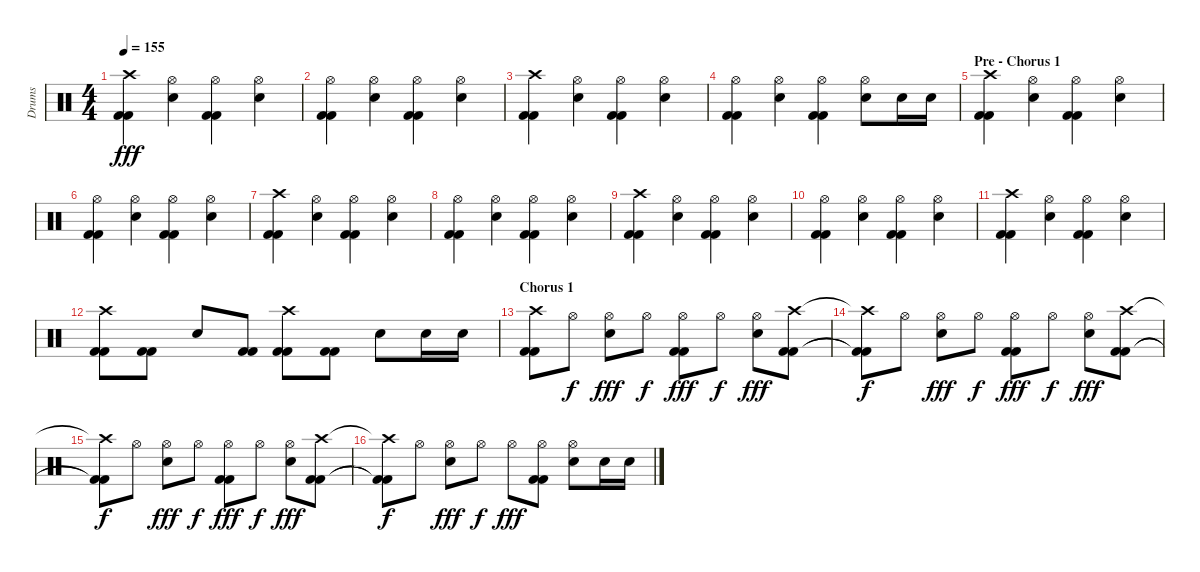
\track ("Drums" "Drums") {instrument percussion}
\staff {score}
\articulation defaults
\ts (4 4)
\tempo 155
\clef neutral
\ks c
("Crash high (hit)" "Kick (hit) 2" "Kick (hit) 2").4{dy fff} ("Hi-Hat (open)" "Snare (hit) 2").4 ("Hi-Hat (open)" "Kick (hit) 2" "Kick (hit) 2").4 ("Hi-Hat (open)" "Snare (hit) 2").4 |
("Hi-Hat (open)" "Kick (hit) 2" "Kick (hit) 2").4 ("Hi-Hat (open)" "Snare (hit) 2").4 ("Hi-Hat (open)" "Kick (hit) 2" "Kick (hit) 2").4 ("Hi-Hat (open)" "Snare (hit) 2").4 |
("Crash high (hit)" "Kick (hit) 2" "Kick (hit) 2").4 ("Hi-Hat (open)" "Snare (hit) 2").4 ("Hi-Hat (open)" "Kick (hit) 2" "Kick (hit) 2").4 ("Hi-Hat (open)" "Snare (hit) 2").4 |
("Hi-Hat (open)" "Kick (hit) 2" "Kick (hit) 2").4 ("Hi-Hat (open)" "Snare (hit) 2").4 ("Hi-Hat (open)" "Kick (hit) 2" "Kick (hit) 2").4 ("Hi-Hat (open)" "Snare (hit) 2").8 "Snare (hit) 2".16 "Snare (hit) 2".16 |
\section ("" "Pre - Chorus 1")
("Crash high (hit)" "Kick (hit) 2" "Kick (hit) 2").4 ("Hi-Hat (open)" "Snare (hit) 2").4 ("Hi-Hat (open)" "Kick (hit) 2" "Kick (hit) 2").4 ("Hi-Hat (open)" "Snare (hit) 2").4 |
("Hi-Hat (open)" "Kick (hit) 2" "Kick (hit) 2").4 ("Hi-Hat (open)" "Snare (hit) 2").4 ("Hi-Hat (open)" "Kick (hit) 2" "Kick (hit) 2").4 ("Hi-Hat (open)" "Snare (hit) 2").4 |
("Crash high (hit)" "Kick (hit) 2" "Kick (hit) 2").4 ("Hi-Hat (open)" "Snare (hit) 2").4 ("Hi-Hat (open)" "Kick (hit) 2" "Kick (hit) 2").4 ("Hi-Hat (open)" "Snare (hit) 2").4 |
("Hi-Hat (open)" "Kick (hit) 2" "Kick (hit) 2").4 ("Hi-Hat (open)" "Snare (hit) 2").4 ("Hi-Hat (open)" "Kick (hit) 2" "Kick (hit) 2").4 ("Hi-Hat (open)" "Snare (hit) 2").4 |
("Crash high (hit)" "Kick (hit) 2" "Kick (hit) 2").4 ("Hi-Hat (open)" "Snare (hit) 2").4 ("Hi-Hat (open)" "Kick (hit) 2" "Kick (hit) 2").4 ("Hi-Hat (open)" "Snare (hit) 2").4 |
("Hi-Hat (open)" "Kick (hit) 2" "Kick (hit) 2").4 ("Hi-Hat (open)" "Snare (hit) 2").4 ("Hi-Hat (open)" "Kick (hit) 2" "Kick (hit) 2").4 ("Hi-Hat (open)" "Snare (hit) 2").4 |
("Crash high (hit)" "Kick (hit) 2" "Kick (hit) 2").4 ("Hi-Hat (open)" "Snare (hit) 2").4 ("Hi-Hat (open)" "Kick (hit) 2" "Kick (hit) 2").4 ("Hi-Hat (open)" "Snare (hit) 2").4 |
("Crash high (hit)" "Kick (hit) 2" "Kick (hit) 2").8 ("Kick (hit) 2" "Kick (hit) 2").8 "Snare (hit) 2".8 ("Kick (hit) 2" "Kick (hit) 2").8 ("Crash high (hit)" "Kick (hit) 2" "Kick (hit) 2").8 ("Kick (hit) 2" "Kick (hit) 2").8 "Snare (hit) 2".8 "Snare (hit) 2".16 "Snare (hit) 2".16 |
\section ("" "Chorus 1")
("Crash high (hit)" "Kick (hit) 2" "Kick (hit) 2").8 "Hi-Hat (open)".8{dy f} ("Hi-Hat (open)" "Snare (hit) 2").8{dy fff} "Hi-Hat (open)".8{dy f} ("Hi-Hat (open)" "Kick (hit) 2" "Kick (hit) 2").8{dy fff} "Hi-Hat (open)".8{dy f} ("Hi-Hat (open)" "Snare (hit) 2").8{dy fff} ("Crash high (hit)" "Kick (hit) 2" "Kick (hit) 2").8 |
("Crash high (hit)"{t} "Kick (hit) 2"{t} "Kick (hit) 2"{t}).8{dy f} "Hi-Hat (open)".8 ("Hi-Hat (open)" "Snare (hit) 2").8{dy fff} "Hi-Hat (open)".8{dy f} ("Hi-Hat (open)" "Kick (hit) 2" "Kick (hit) 2").8{dy fff} "Hi-Hat (open)".8{dy f} ("Hi-Hat (open)" "Snare (hit) 2").8{dy fff} ("Crash high (hit)" "Kick (hit) 2" "Kick (hit) 2").8 |
("Crash high (hit)"{t} "Kick (hit) 2"{t} "Kick (hit) 2"{t}).8{dy f} "Hi-Hat (open)".8 ("Hi-Hat (open)" "Snare (hit) 2").8{dy fff} "Hi-Hat (open)".8{dy f} ("Hi-Hat (open)" "Kick (hit) 2" "Kick (hit) 2").8{dy fff} "Hi-Hat (open)".8{dy f} ("Hi-Hat (open)" "Snare (hit) 2").8{dy fff} ("Crash high (hit)" "Kick (hit) 2" "Kick (hit) 2").8 |
("Crash high (hit)"{t} "Kick (hit) 2"{t} "Kick (hit) 2"{t}).8{dy f} "Hi-Hat (open)".8 ("Hi-Hat (open)" "Snare (hit) 2").8{dy fff} "Hi-Hat (open)".8{dy f} "Hi-Hat (open)".8{dy fff} ("Hi-Hat (open)" "Kick (hit) 2" "Kick (hit) 2").8 ("Hi-Hat (open)" "Snare (hit) 2").8 "Snare (hit) 2".16 "Snare (hit) 2".16
